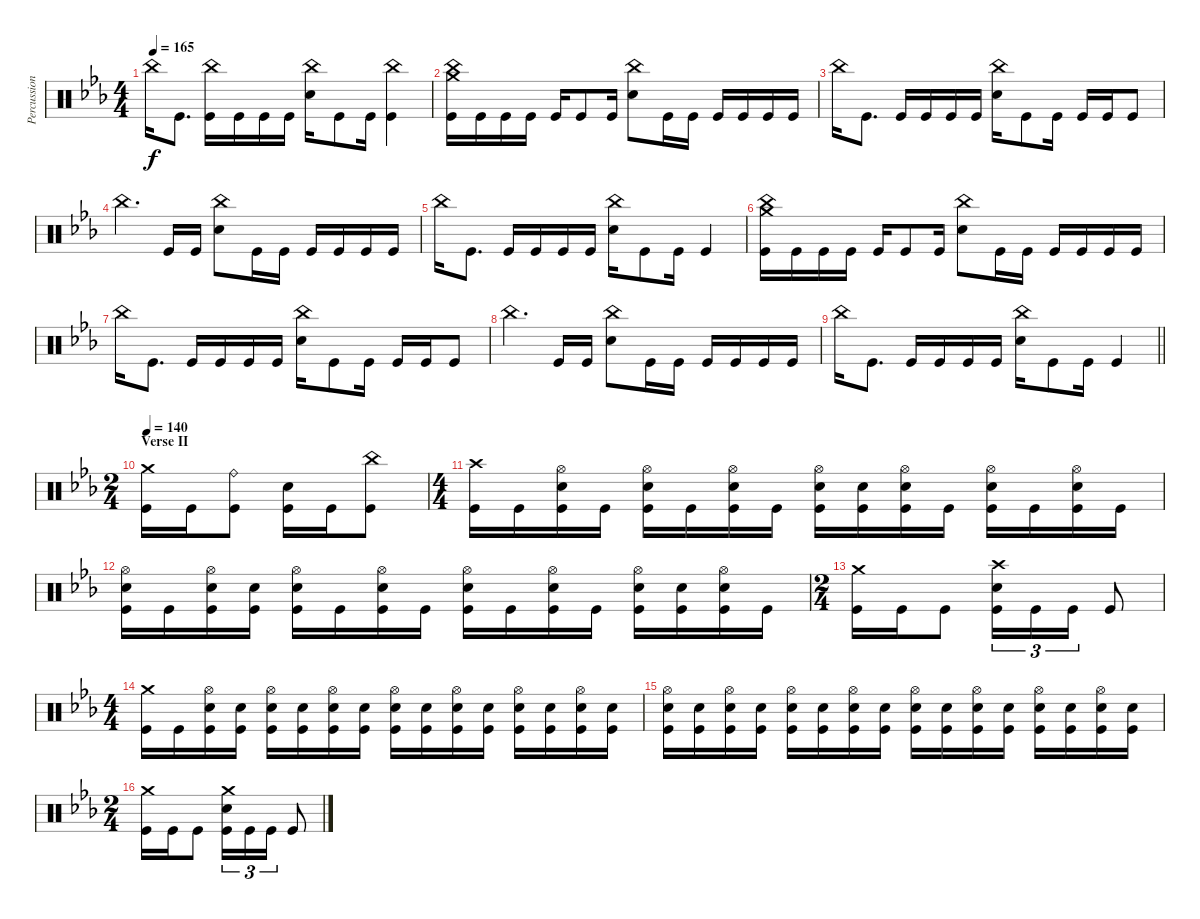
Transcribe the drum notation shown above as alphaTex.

\track ("Percussion" "Percussion") {instrument percussion}
\staff {score}
\articulation defaults
\ts (4 4)
\tempo 165
\clef neutral
\ks eb "China (hit)".16{dy f} "Kick (hit)".8{d}
("China (hit)" "Kick (hit)").16 "Kick (hit)".16 "Kick (hit)".16 "Kick (hit)".16 ("China (hit)" "Electric Snare (hit)").16 "Kick (hit)".8 "Kick (hit)".16 ("China (hit)" "Kick (hit)").4 |
("Crash medium (hit)" "China (hit)" "Kick (hit)").16 "Kick (hit)".16 "Kick (hit)".16 "Kick (hit)".16 "Kick (hit)".16 "Kick (hit)".8 "Kick (hit)".16 ("China (hit)" "Electric Snare (hit)").8 "Kick (hit)".16 "Kick (hit)".16 "Kick (hit)".16 "Kick (hit)".16 "Kick (hit)".16 "Kick (hit)".16 |
"China (hit)".16 "Kick (hit)".8{d} "Kick (hit)".16 "Kick (hit)".16 "Kick (hit)".16 "Kick (hit)".16 ("China (hit)" "Electric Snare (hit)").16 "Kick (hit)".8 "Kick (hit)".16 "Kick (hit)".16 "Kick (hit)".16 "Kick (hit)".8 |
"China (hit)".4{d} "Kick (hit)".16 "Kick (hit)".16 ("China (hit)" "Electric Snare (hit)").8 "Kick (hit)".16 "Kick (hit)".16 "Kick (hit)".16 "Kick (hit)".16 "Kick (hit)".16 "Kick (hit)".16 |
"China (hit)".16 "Kick (hit)".8{d} "Kick (hit)".16 "Kick (hit)".16 "Kick (hit)".16 "Kick (hit)".16 ("China (hit)" "Electric Snare (hit)").16 "Kick (hit)".8 "Kick (hit)".16 "Kick (hit)".4 |
("Crash medium (hit)" "China (hit)" "Kick (hit)").16 "Kick (hit)".16 "Kick (hit)".16 "Kick (hit)".16 "Kick (hit)".16 "Kick (hit)".8 "Kick (hit)".16 ("China (hit)" "Electric Snare (hit)").8 "Kick (hit)".16 "Kick (hit)".16 "Kick (hit)".16 "Kick (hit)".16 "Kick (hit)".16 "Kick (hit)".16 |
"China (hit)".16 "Kick (hit)".8{d} "Kick (hit)".16 "Kick (hit)".16 "Kick (hit)".16 "Kick (hit)".16 ("China (hit)" "Electric Snare (hit)").16 "Kick (hit)".8 "Kick (hit)".16 "Kick (hit)".16 "Kick (hit)".16 "Kick (hit)".8 |
"China (hit)".4{d} "Kick (hit)".16 "Kick (hit)".16 ("China (hit)" "Electric Snare (hit)").8 "Kick (hit)".16 "Kick (hit)".16 "Kick (hit)".16 "Kick (hit)".16 "Kick (hit)".16 "Kick (hit)".16 |
\barLineRight lightlight "China (hit)".16 "Kick (hit)".8{d} "Kick (hit)".16 "Kick (hit)".16 "Kick (hit)".16 "Kick (hit)".16
("China (hit)" "Electric Snare (hit)").16 "Kick (hit)".8 "Kick (hit)".16 "Kick (hit)".4 |
\ts (2 4)
\section ("" "Verse II")
\tempo 140
("Crash medium (hit)" "Kick (hit)").16 "Kick (hit)".16 ("Ride (bell)" "Kick (hit)").8 ("Electric Snare (hit)" "Kick (hit)").16 "Kick (hit)".16 ("China (hit)" "Kick (hit)").8 |
\ts (4 4)
("Crash high (hit)" "Kick (hit)").16 "Kick (hit)".16 ("Hi-Hat (open)" "Electric Snare (hit)" "Kick (hit)").16 "Kick (hit)".16 ("Hi-Hat (open)" "Electric Snare (hit)" "Kick (hit)").16 "Kick (hit)".16 ("Hi-Hat (open)" "Electric Snare (hit)" "Kick (hit)").16 "Kick (hit)".16 ("Hi-Hat (open)" "Electric Snare (hit)" "Kick (hit)").16 ("Electric Snare (hit)" "Kick (hit)").16 ("Hi-Hat (open)" "Electric Snare (hit)" "Kick (hit)").16 "Kick (hit)".16 ("Hi-Hat (open)" "Electric Snare (hit)" "Kick (hit)").16 "Kick (hit)".16 ("Hi-Hat (open)" "Electric Snare (hit)" "Kick (hit)").16 "Kick (hit)".16 |
("Hi-Hat (open)" "Electric Snare (hit)" "Kick (hit)").16 "Kick (hit)".16 ("Hi-Hat (open)" "Electric Snare (hit)" "Kick (hit)").16 ("Electric Snare (hit)" "Kick (hit)").16 ("Hi-Hat (open)" "Electric Snare (hit)" "Kick (hit)").16 "Kick (hit)".16 ("Hi-Hat (open)" "Electric Snare (hit)" "Kick (hit)").16 "Kick (hit)".16 ("Hi-Hat (open)" "Electric Snare (hit)" "Kick (hit)").16 "Kick (hit)".16 ("Hi-Hat (open)" "Electric Snare (hit)" "Kick (hit)").16 "Kick (hit)".16 ("Hi-Hat (open)" "Electric Snare (hit)" "Kick (hit)").16 ("Electric Snare (hit)" "Kick (hit)").16 ("Hi-Hat (open)" "Electric Snare (hit)" "Kick (hit)").16 "Kick (hit)".16 |
\ts (2 4)
("Crash medium (hit)" "Kick (hit)").16 "Kick (hit)".16 "Kick (hit)".8 ("Crash high (hit)" "Electric Snare (hit)" "Kick (hit)").16{tu (3 2)} "Kick (hit)".16{tu (3 2)} "Kick (hit)".16{tu (3 2)} "Kick (hit)".8 |
\ts (4 4)
("Crash medium (hit)" "Kick (hit)").16 "Kick (hit)".16 ("Hi-Hat (open)" "Electric Snare (hit)" "Kick (hit)").16 ("Electric Snare (hit)" "Kick (hit)").16 ("Hi-Hat (open)" "Electric Snare (hit)" "Kick (hit)").16 ("Electric Snare (hit)" "Kick (hit)").16 ("Hi-Hat (open)" "Electric Snare (hit)" "Kick (hit)").16 ("Electric Snare (hit)" "Kick (hit)").16 ("Hi-Hat (open)" "Electric Snare (hit)" "Kick (hit)").16 ("Electric Snare (hit)" "Kick (hit)").16 ("Hi-Hat (open)" "Electric Snare (hit)" "Kick (hit)").16 ("Electric Snare (hit)" "Kick (hit)").16 ("Hi-Hat (open)" "Electric Snare (hit)" "Kick (hit)").16 ("Electric Snare (hit)" "Kick (hit)").16 ("Hi-Hat (open)" "Electric Snare (hit)" "Kick (hit)").16 ("Electric Snare (hit)" "Kick (hit)").16 |
("Hi-Hat (open)" "Electric Snare (hit)" "Kick (hit)").16 ("Electric Snare (hit)" "Kick (hit)").16 ("Hi-Hat (open)" "Electric Snare (hit)" "Kick (hit)").16 ("Electric Snare (hit)" "Kick (hit)").16 ("Hi-Hat (open)" "Electric Snare (hit)" "Kick (hit)").16 ("Electric Snare (hit)" "Kick (hit)").16 ("Hi-Hat (open)" "Electric Snare (hit)" "Kick (hit)").16 ("Electric Snare (hit)" "Kick (hit)").16 ("Hi-Hat (open)" "Electric Snare (hit)" "Kick (hit)").16 ("Electric Snare (hit)" "Kick (hit)").16 ("Hi-Hat (open)" "Electric Snare (hit)" "Kick (hit)").16 ("Electric Snare (hit)" "Kick (hit)").16 ("Hi-Hat (open)" "Electric Snare (hit)" "Kick (hit)").16 ("Electric Snare (hit)" "Kick (hit)").16 ("Hi-Hat (open)" "Electric Snare (hit)" "Kick (hit)").16 ("Electric Snare (hit)" "Kick (hit)").16 |
\ts (2 4)
("Crash medium (hit)" "Kick (hit)").16 "Kick (hit)".16 "Kick (hit)".8 ("Crash medium (hit)" "Electric Snare (hit)" "Kick (hit)").16{tu (3 2)} "Kick (hit)".16{tu (3 2)} "Kick (hit)".16{tu (3 2)} "Kick (hit)".8
